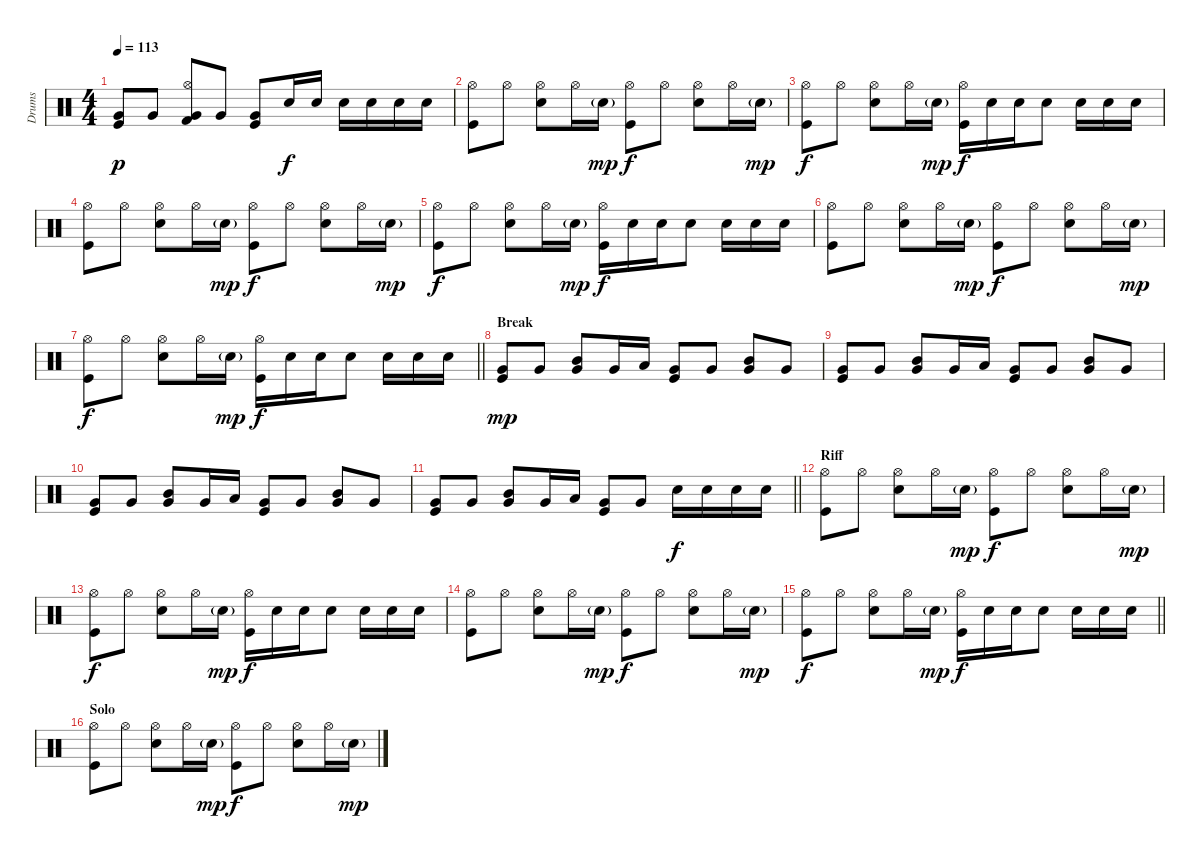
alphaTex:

\track ("Drums" "Drums") {instrument percussion}
\staff {score}
\articulation defaults
\ts (4 4)
\tempo 113
\clef neutral
\ks c
("Very Low Tom (hit)" "Kick (hit)").8{dy p} "Very Low Tom (hit)".8 ("Hi-Hat (open)" "Kick (hit) 2" "Very Low Tom (hit)").8 "Very Low Tom (hit)".8 ("Very Low Tom (hit)" "Kick (hit)").8 "Snare (hit) 2".16{dy f} "Snare (hit) 2".16 "Snare (hit) 2".16 "Snare (hit) 2".16 "Snare (hit) 2".16 "Snare (hit) 2".16 |
("Hi-Hat (open)" "Kick (hit)").8 "Hi-Hat (open)".8 ("Hi-Hat (open)" "Snare (hit) 2").8 "Hi-Hat (open)".16 "Snare (hit) 2"{g}.16{dy mp} ("Hi-Hat (open)" "Kick (hit)").8{dy f} "Hi-Hat (open)".8 ("Hi-Hat (open)" "Snare (hit) 2").8 "Hi-Hat (open)".16 "Snare (hit) 2"{g}.16{dy mp} |
("Hi-Hat (open)" "Kick (hit)").8{dy f} "Hi-Hat (open)".8 ("Hi-Hat (open)" "Snare (hit) 2").8 "Hi-Hat (open)".16 "Snare (hit) 2"{g}.16{dy mp} ("Hi-Hat (open)" "Kick (hit)").16{dy f} "Snare (hit) 2".16 "Snare (hit) 2".16 "Snare (hit) 2".8 "Snare (hit) 2".16 "Snare (hit) 2".16 "Snare (hit) 2".16 |
("Hi-Hat (open)" "Kick (hit)").8 "Hi-Hat (open)".8 ("Hi-Hat (open)" "Snare (hit) 2").8 "Hi-Hat (open)".16 "Snare (hit) 2"{g}.16{dy mp} ("Hi-Hat (open)" "Kick (hit)").8{dy f} "Hi-Hat (open)".8 ("Hi-Hat (open)" "Snare (hit) 2").8 "Hi-Hat (open)".16 "Snare (hit) 2"{g}.16{dy mp} |
("Hi-Hat (open)" "Kick (hit)").8{dy f} "Hi-Hat (open)".8 ("Hi-Hat (open)" "Snare (hit) 2").8 "Hi-Hat (open)".16 "Snare (hit) 2"{g}.16{dy mp} ("Hi-Hat (open)" "Kick (hit)").16{dy f} "Snare (hit) 2".16 "Snare (hit) 2".16 "Snare (hit) 2".8 "Snare (hit) 2".16 "Snare (hit) 2".16 "Snare (hit) 2".16 |
("Hi-Hat (open)" "Kick (hit)").8 "Hi-Hat (open)".8 ("Hi-Hat (open)" "Snare (hit) 2").8 "Hi-Hat (open)".16 "Snare (hit) 2"{g}.16{dy mp} ("Hi-Hat (open)" "Kick (hit)").8{dy f} "Hi-Hat (open)".8 ("Hi-Hat (open)" "Snare (hit) 2").8 "Hi-Hat (open)".16 "Snare (hit) 2"{g}.16{dy mp} |
\barLineRight lightlight
("Hi-Hat (open)" "Kick (hit)").8{dy f} "Hi-Hat (open)".8 ("Hi-Hat (open)" "Snare (hit) 2").8 "Hi-Hat (open)".16 "Snare (hit) 2"{g}.16{dy mp} ("Hi-Hat (open)" "Kick (hit)").16{dy f} "Snare (hit) 2".16 "Snare (hit) 2".16 "Snare (hit) 2".8 "Snare (hit) 2".16 "Snare (hit) 2".16 "Snare (hit) 2".16 |
\section ("" "Break")
("Very Low Tom (hit)" "Kick (hit)").8{dy mp} "Very Low Tom (hit)".8 ("Mid Tom (hit)" "Very Low Tom (hit)").8 "Very Low Tom (hit)".16 "Low Tom (hit)".16 ("Very Low Tom (hit)" "Kick (hit)").8 "Very Low Tom (hit)".8 ("Mid Tom (hit)" "Very Low Tom (hit)").8 "Very Low Tom (hit)".8 |
("Very Low Tom (hit)" "Kick (hit)").8 "Very Low Tom (hit)".8 ("Mid Tom (hit)" "Very Low Tom (hit)").8 "Very Low Tom (hit)".16 "Low Tom (hit)".16 ("Very Low Tom (hit)" "Kick (hit)").8 "Very Low Tom (hit)".8 ("Mid Tom (hit)" "Very Low Tom (hit)").8 "Very Low Tom (hit)".8 |
("Very Low Tom (hit)" "Kick (hit)").8 "Very Low Tom (hit)".8 ("Mid Tom (hit)" "Very Low Tom (hit)").8 "Very Low Tom (hit)".16 "Low Tom (hit)".16 ("Very Low Tom (hit)" "Kick (hit)").8 "Very Low Tom (hit)".8 ("Mid Tom (hit)" "Very Low Tom (hit)").8 "Very Low Tom (hit)".8 |
\barLineRight lightlight
("Very Low Tom (hit)" "Kick (hit)").8 "Very Low Tom (hit)".8 ("Mid Tom (hit)" "Very Low Tom (hit)").8 "Very Low Tom (hit)".16 "Low Tom (hit)".16 ("Very Low Tom (hit)" "Kick (hit)").8 "Very Low Tom (hit)".8 "Snare (hit) 2".16{dy f} "Snare (hit) 2".16 "Snare (hit) 2".16 "Snare (hit) 2".16 |
\section ("" "Riff")
("Hi-Hat (open)" "Kick (hit)").8 "Hi-Hat (open)".8 ("Hi-Hat (open)" "Snare (hit) 2").8 "Hi-Hat (open)".16 "Snare (hit) 2"{g}.16{dy mp} ("Hi-Hat (open)" "Kick (hit)").8{dy f} "Hi-Hat (open)".8 ("Hi-Hat (open)" "Snare (hit) 2").8 "Hi-Hat (open)".16 "Snare (hit) 2"{g}.16{dy mp} |
("Hi-Hat (open)" "Kick (hit)").8{dy f} "Hi-Hat (open)".8 ("Hi-Hat (open)" "Snare (hit) 2").8 "Hi-Hat (open)".16 "Snare (hit) 2"{g}.16{dy mp} ("Hi-Hat (open)" "Kick (hit)").16{dy f} "Snare (hit) 2".16 "Snare (hit) 2".16 "Snare (hit) 2".8 "Snare (hit) 2".16 "Snare (hit) 2".16 "Snare (hit) 2".16 |
("Hi-Hat (open)" "Kick (hit)").8 "Hi-Hat (open)".8 ("Hi-Hat (open)" "Snare (hit) 2").8 "Hi-Hat (open)".16 "Snare (hit) 2"{g}.16{dy mp} ("Hi-Hat (open)" "Kick (hit)").8{dy f} "Hi-Hat (open)".8 ("Hi-Hat (open)" "Snare (hit) 2").8 "Hi-Hat (open)".16 "Snare (hit) 2"{g}.16{dy mp} |
\barLineRight lightlight
("Hi-Hat (open)" "Kick (hit)").8{dy f} "Hi-Hat (open)".8 ("Hi-Hat (open)" "Snare (hit) 2").8 "Hi-Hat (open)".16 "Snare (hit) 2"{g}.16{dy mp} ("Hi-Hat (open)" "Kick (hit)").16{dy f} "Snare (hit) 2".16 "Snare (hit) 2".16 "Snare (hit) 2".8 "Snare (hit) 2".16 "Snare (hit) 2".16 "Snare (hit) 2".16 |
\section ("" "Solo")
("Hi-Hat (open)" "Kick (hit)").8 "Hi-Hat (open)".8 ("Hi-Hat (open)" "Snare (hit) 2").8 "Hi-Hat (open)".16 "Snare (hit) 2"{g}.16{dy mp} ("Hi-Hat (open)" "Kick (hit)").8{dy f} "Hi-Hat (open)".8 ("Hi-Hat (open)" "Snare (hit) 2").8 "Hi-Hat (open)".16 "Snare (hit) 2"{g}.16{dy mp}
